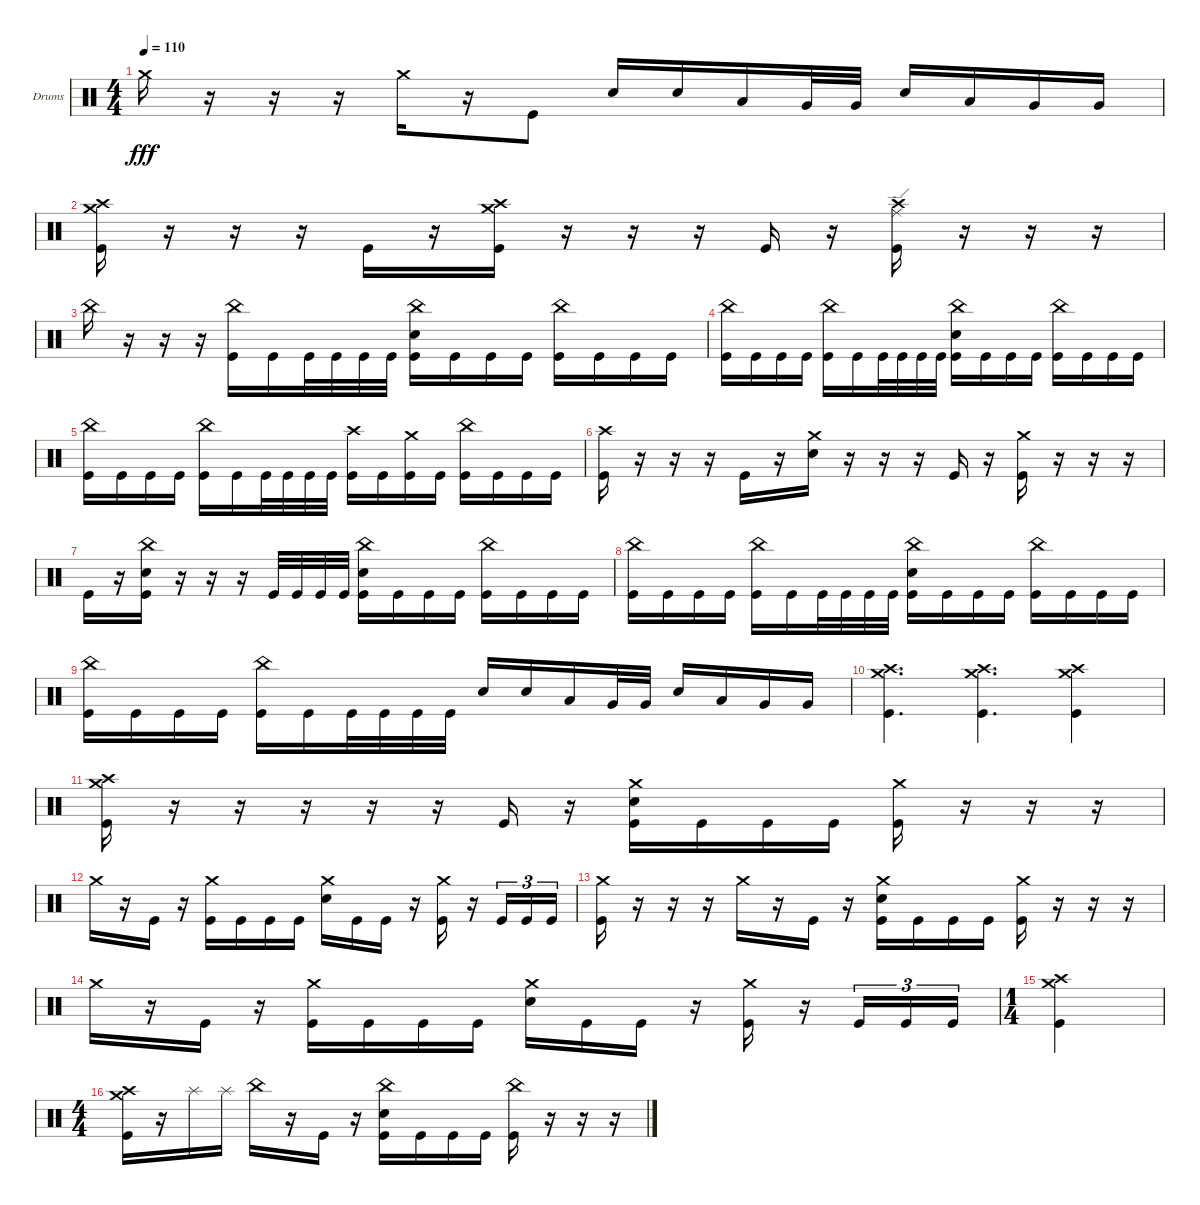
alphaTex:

\bracketExtendMode groupsimilarinstruments
\firstSystemTrackNameOrientation horizontal
\otherSystemsTrackNameOrientation horizontal
\track ("Drumkit" "Drums") {instrument percussion}
\staff {score}
\articulation defaults
\ts (4 4)
\tempo 110
\clef neutral
\ks c "Crash medium (hit)".16{dy fff}
r.16 r.16 r.16 "Crash medium (hit)".16 r.16 "Kick (hit)".8 "Snare (hit) 2".16 "Snare (hit) 2".16 "Low Tom (hit)".16 "Very Low Tom (hit)".32 "Very Low Tom (hit)".32 "Snare (hit) 2".16 "Low Tom (hit)".16 "Very Low Tom (hit)".16 "Very Low Tom (hit)".16 |
("Kick (hit)" "Crash high (hit)" "Crash medium (hit)").16 r.16 r.16 r.16 "Kick (hit)".16 r.16 ("Kick (hit)" "Crash high (hit)" "Crash medium (hit)").16 r.16 r.16 r.16 "Kick (hit)".16 r.16 ("Kick (hit)" "Crash high (hit)" "Ride (edge)").16 r.16 r.16 r.16 |
"China (hit)".16 r.16 r.16 r.16 ("Kick (hit)" "China (hit)").16 "Kick (hit)".16 "Kick (hit)".32 "Kick (hit)".32 "Kick (hit)".32 "Kick (hit)".32 ("Snare (hit) 2" "Kick (hit)" "China (hit)").16 "Kick (hit)".16 "Kick (hit)".16 "Kick (hit)".16 ("Kick (hit)" "China (hit)").16 "Kick (hit)".16 "Kick (hit)".16 "Kick (hit)".16 |
("Kick (hit)" "China (hit)").16 "Kick (hit)".16 "Kick (hit)".16 "Kick (hit)".16 ("Kick (hit)" "China (hit)").16 "Kick (hit)".16 "Kick (hit)".32 "Kick (hit)".32 "Kick (hit)".32 "Kick (hit)".32 ("Snare (hit) 2" "Kick (hit)" "China (hit)").16 "Kick (hit)".16 "Kick (hit)".16 "Kick (hit)".16 ("Kick (hit)" "China (hit)").16 "Kick (hit)".16 "Kick (hit)".16 "Kick (hit)".16 |
("Kick (hit)" "China (hit)").16 "Kick (hit)".16 "Kick (hit)".16 "Kick (hit)".16 ("Kick (hit)" "China (hit)").16 "Kick (hit)".16 "Kick (hit)".32 "Kick (hit)".32 "Kick (hit)".32 "Kick (hit)".32 ("Kick (hit)" "Crash high (hit)").16 "Kick (hit)".16 ("Kick (hit)" "Crash medium (hit)").16 "Kick (hit)".16 ("Kick (hit)" "China (hit)").16 "Kick (hit)".16 "Kick (hit)".16 "Kick (hit)".16 |
("Kick (hit)" "Crash high (hit)").16 r.16 r.16 r.16 "Kick (hit)".16 r.16 ("Crash medium (hit)" "Snare (hit) 2").16 r.16 r.16 r.16 "Kick (hit)".16 r.16 ("Crash medium (hit)" "Kick (hit)").16 r.16 r.16 r.16 |
"Kick (hit)".16 r.16 ("Kick (hit)" "China (hit)" "Snare (hit) 2").16 r.16 r.16 r.16 "Kick (hit)".32 "Kick (hit)".32 "Kick (hit)".32 "Kick (hit)".32 ("Kick (hit)" "China (hit)" "Snare (hit) 2").16 "Kick (hit)".16 "Kick (hit)".16 "Kick (hit)".16 ("Kick (hit)" "China (hit)").16 "Kick (hit)".16 "Kick (hit)".16 "Kick (hit)".16 |
("Kick (hit)" "China (hit)").16 "Kick (hit)".16 "Kick (hit)".16 "Kick (hit)".16 ("Kick (hit)" "China (hit)").16 "Kick (hit)".16 "Kick (hit)".32 "Kick (hit)".32 "Kick (hit)".32 "Kick (hit)".32 ("Snare (hit) 2" "Kick (hit)" "China (hit)").16 "Kick (hit)".16 "Kick (hit)".16 "Kick (hit)".16 ("Kick (hit)" "China (hit)").16 "Kick (hit)".16 "Kick (hit)".16 "Kick (hit)".16 |
("Kick (hit)" "China (hit)").16 "Kick (hit)".16 "Kick (hit)".16 "Kick (hit)".16 ("Kick (hit)" "China (hit)").16 "Kick (hit)".16 "Kick (hit)".32 "Kick (hit)".32 "Kick (hit)".32 "Kick (hit)".32 "Snare (hit) 2".16 "Snare (hit) 2".16 "Low Tom (hit)".16 "Very Low Tom (hit)".32 "Very Low Tom (hit)".32 "Snare (hit) 2".16 "Low Tom (hit)".16 "Very Low Tom (hit)".16 "Very Low Tom (hit)".16 |
("Kick (hit)" "Crash medium (hit)" "Crash high (hit)").4{d} ("Crash high (hit)" "Crash medium (hit)" "Kick (hit)").4{d} ("Crash high (hit)" "Crash medium (hit)" "Kick (hit)").4 |
("Kick (hit)" "Crash medium (hit)" "Crash high (hit)").16 r.16 r.16 r.16 r.16 r.16 "Kick (hit)".16 r.16 ("Kick (hit)" "Crash medium (hit)" "Snare (hit) 2").16 "Kick (hit)".16 "Kick (hit)".16 "Kick (hit)".16 ("Kick (hit)" "Crash medium (hit)").16 r.16 r.16 r.16 |
"Crash medium (hit)".16 r.16 "Kick (hit)".16 r.16 ("Kick (hit)" "Crash medium (hit)").16 "Kick (hit)".16 "Kick (hit)".16 "Kick (hit)".16 ("Crash medium (hit)" "Snare (hit) 2").16 "Kick (hit)".16 "Kick (hit)".16 r.16 ("Kick (hit)" "Crash medium (hit)").16 r.16 "Kick (hit)".16{tu (3 2)} "Kick (hit)".16{tu (3 2)} "Kick (hit)".16{tu (3 2)} |
("Kick (hit)" "Crash medium (hit)").16 r.16 r.16 r.16 "Crash medium (hit)".16 r.16 "Kick (hit)".16 r.16 ("Kick (hit)" "Crash medium (hit)" "Snare (hit) 2").16 "Kick (hit)".16 "Kick (hit)".16 "Kick (hit)".16 ("Kick (hit)" "Crash medium (hit)").16 r.16 r.16 r.16 |
"Crash medium (hit)".16 r.16 "Kick (hit)".16 r.16 ("Kick (hit)" "Crash medium (hit)").16 "Kick (hit)".16 "Kick (hit)".16 "Kick (hit)".16 ("Crash medium (hit)" "Snare (hit) 2").16 "Kick (hit)".16 "Kick (hit)".16 r.16 ("Kick (hit)" "Crash medium (hit)").16 r.16 "Kick (hit)".16{tu (3 2)} "Kick (hit)".16{tu (3 2)} "Kick (hit)".16{tu (3 2)} |
\ts (1 4)
("Kick (hit)" "Crash medium (hit)" "Crash high (hit)").4 |
\ts (4 4)
("Kick (hit)" "Crash medium (hit)" "Crash high (hit)").16 r.16 "Splash (hit)".16 "Splash (hit)".16 "China (hit)".16 r.16 "Kick (hit)".16 r.16 ("Kick (hit)" "Snare (hit) 2" "China (hit)").16 "Kick (hit)".16 "Kick (hit)".16 "Kick (hit)".16 ("Kick (hit)" "China (hit)").16 r.16 r.16 r.16
